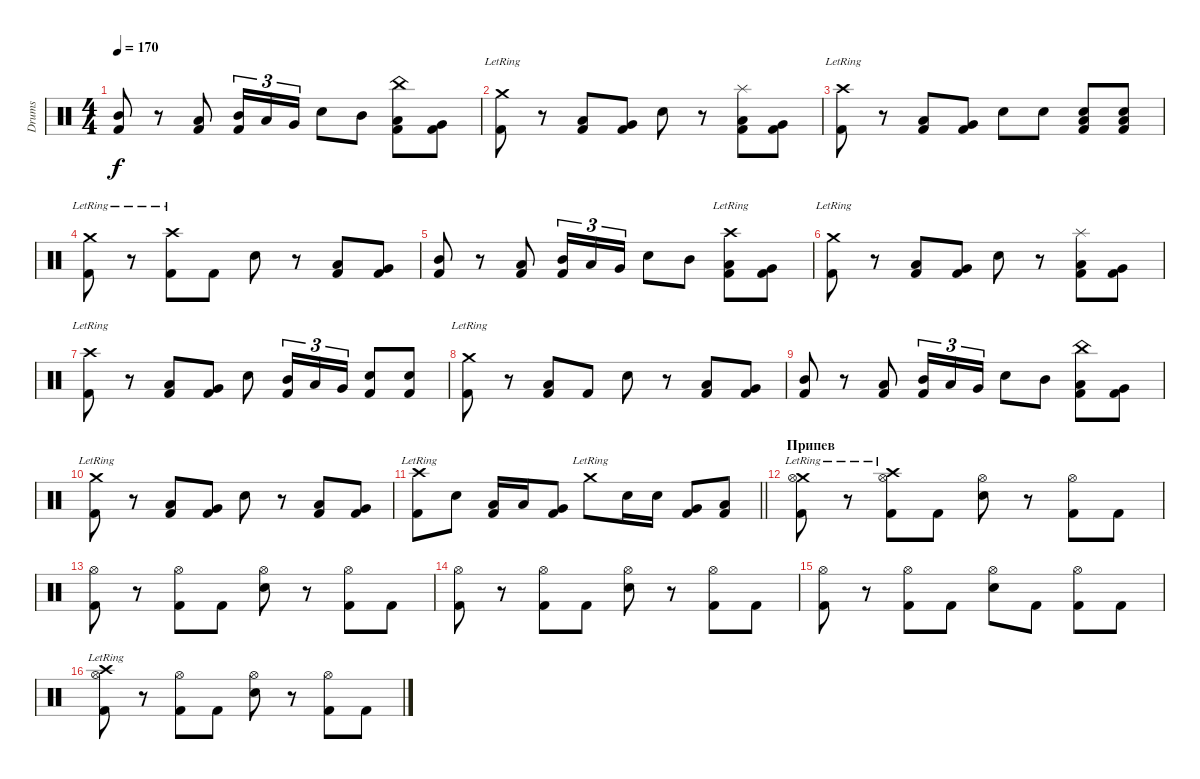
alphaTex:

\track ("Drums" "Drums") {instrument percussion}
\staff {score}
\articulation defaults
\ts (4 4)
\tempo 170
\clef neutral
\ks c
("Mid Tom (hit)" "Kick (hit) 2").8{dy f} r.8 ("Low Tom (hit)" "Kick (hit) 2").8 ("Mid Tom (hit)" "Kick (hit) 2").16{tu (3 2)} "Low Tom (hit)".16{tu (3 2)} "Very Low Tom (hit)".16{tu (3 2)} "Electric Snare (hit)".8 "Mid Tom (hit)".8 ("China (hit)" "Low Tom (hit)" "Kick (hit) 2").8 ("Very Low Tom (hit)" "Kick (hit) 2").8 |
("Crash medium (hit)"{lr} "Kick (hit) 2").8 r.8 ("Low Tom (hit)" "Kick (hit) 2").8 ("Very Low Tom (hit)" "Kick (hit) 2").8 "Electric Snare (hit)".8 r.8 ("Splash (hit)" "Low Tom (hit)" "Kick (hit) 2").8 ("Very Low Tom (hit)" "Kick (hit) 2").8 |
("Crash high (hit)"{lr} "Kick (hit) 2").8 r.8 ("Low Tom (hit)" "Kick (hit) 2").8 ("Very Low Tom (hit)" "Kick (hit) 2").8 "Electric Snare (hit)".8 "Electric Snare (hit)".8 ("Electric Snare (hit)" "Kick (hit) 2" "Low Floor Tom (hit)").8 ("Electric Snare (hit)" "Kick (hit) 2" "Low Floor Tom (hit)").8 |
("Crash medium (hit)"{lr} "Kick (hit) 2").8 r.8 ("Crash high (hit)"{lr} "Kick (hit) 2").8 "Kick (hit) 2".8 "Electric Snare (hit)".8 r.8 ("Low Tom (hit)" "Kick (hit) 2").8 ("Very Low Tom (hit)" "Kick (hit) 2").8 |
("Mid Tom (hit)" "Kick (hit) 2").8 r.8 ("Low Tom (hit)" "Kick (hit) 2").8 ("Mid Tom (hit)" "Kick (hit) 2").16{tu (3 2)} "Low Tom (hit)".16{tu (3 2)} "Very Low Tom (hit)".16{tu (3 2)} "Electric Snare (hit)".8 "Mid Tom (hit)".8 ("Crash high (hit)"{lr} "Low Tom (hit)" "Kick (hit) 2").8 ("Very Low Tom (hit)" "Kick (hit) 2").8 |
("Crash medium (hit)"{lr} "Kick (hit) 2").8 r.8 ("Low Tom (hit)" "Kick (hit) 2").8 ("Very Low Tom (hit)" "Kick (hit) 2").8 "Electric Snare (hit)".8 r.8 ("Splash (hit)" "Low Tom (hit)" "Kick (hit) 2").8 ("Very Low Tom (hit)" "Kick (hit) 2").8 |
("Crash high (hit)"{lr} "Kick (hit) 2").8 r.8 ("Low Tom (hit)" "Kick (hit) 2").8 ("Very Low Tom (hit)" "Kick (hit) 2").8 "Electric Snare (hit)".8 ("Mid Tom (hit)" "Kick (hit) 2").16{tu (3 2)} "Low Tom (hit)".16{tu (3 2)} "Very Low Tom (hit)".16{tu (3 2)} ("Electric Snare (hit)" "Kick (hit) 2").8 ("Electric Snare (hit)" "Kick (hit) 2").8 |
("Crash medium (hit)"{lr} "Kick (hit) 2").8 r.8 ("Low Tom (hit)" "Kick (hit) 2").8 "Kick (hit) 2".8 "Electric Snare (hit)".8 r.8 ("Low Tom (hit)" "Kick (hit) 2").8 ("Very Low Tom (hit)" "Kick (hit) 2").8 |
("Mid Tom (hit)" "Kick (hit) 2").8 r.8 ("Low Tom (hit)" "Kick (hit) 2").8 ("Mid Tom (hit)" "Kick (hit) 2").16{tu (3 2)} "Low Tom (hit)".16{tu (3 2)} "Very Low Tom (hit)".16{tu (3 2)} "Electric Snare (hit)".8 "Mid Tom (hit)".8 ("China (hit)" "Low Tom (hit)" "Kick (hit) 2").8 ("Very Low Tom (hit)" "Kick (hit) 2").8 |
("Crash medium (hit)"{lr} "Kick (hit) 2").8 r.8 ("Low Tom (hit)" "Kick (hit) 2").8 ("Very Low Tom (hit)" "Kick (hit) 2").8 "Electric Snare (hit)".8 r.8 ("Low Tom (hit)" "Kick (hit) 2").8 ("Very Low Tom (hit)" "Kick (hit) 2").8 |
\barLineRight lightlight
("Crash high (hit)"{lr} "Kick (hit) 2").8 "Electric Snare (hit)".8 ("Low Tom (hit)" "Kick (hit) 2").16 "Low Tom (hit)".16 ("Very Low Tom (hit)" "Kick (hit) 2").8 "Crash medium (hit)"{lr}.8 "Electric Snare (hit)".16 "Electric Snare (hit)".16 ("Very Low Tom (hit)" "Kick (hit) 2").8 ("Low Floor Tom (hit)" "Kick (hit) 2").8 |
\section ("" "Припев")
("Crash medium (hit)"{lr} "Kick (hit) 2" "Hi-Hat (open)").8 r.8 ("Crash high (hit)"{lr} "Kick (hit) 2" "Hi-Hat (open)").8 "Kick (hit) 2".8 ("Electric Snare (hit)" "Hi-Hat (open)").8 r.8 ("Kick (hit) 2" "Hi-Hat (open)").8 "Kick (hit) 2".8 |
("Kick (hit) 2" "Hi-Hat (open)").8 r.8 ("Kick (hit) 2" "Hi-Hat (open)").8 "Kick (hit) 2".8 ("Electric Snare (hit)" "Hi-Hat (open)").8 r.8 ("Kick (hit) 2" "Hi-Hat (open)").8 "Kick (hit) 2".8 |
("Kick (hit) 2" "Hi-Hat (open)").8 r.8 ("Kick (hit) 2" "Hi-Hat (open)").8 "Kick (hit) 2".8 ("Electric Snare (hit)" "Hi-Hat (open)").8 r.8 ("Kick (hit) 2" "Hi-Hat (open)").8 "Kick (hit) 2".8 |
("Kick (hit) 2" "Hi-Hat (open)").8 r.8 ("Kick (hit) 2" "Hi-Hat (open)").8 "Kick (hit) 2".8 ("Electric Snare (hit)" "Hi-Hat (open)").8 "Kick (hit) 2".8 ("Kick (hit) 2" "Hi-Hat (open)").8 "Kick (hit) 2".8 |
("Crash high (hit)"{lr} "Kick (hit) 2" "Hi-Hat (open)").8 r.8 ("Kick (hit) 2" "Hi-Hat (open)").8 "Kick (hit) 2".8 ("Electric Snare (hit)" "Hi-Hat (open)").8 r.8 ("Kick (hit) 2" "Hi-Hat (open)").8 "Kick (hit) 2".8
